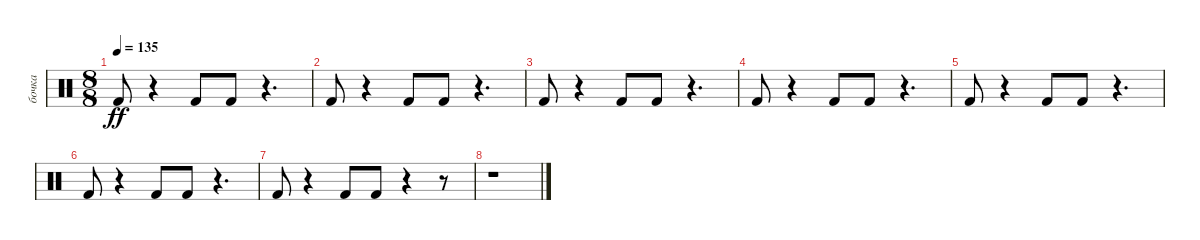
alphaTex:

\track ("бочка" "бочка") {instrument percussion}
\staff {score}
\articulation defaults
\ts (8 8)
\tempo 135
\clef neutral
\ks c "Kick (hit) 2".8{dy ff volume 14}
r.4 "Kick (hit) 2".8{volume 13} "Kick (hit) 2".8 r.4{d} |
"Kick (hit) 2".8{volume 12} r.4 "Kick (hit) 2".8{volume 12} "Kick (hit) 2".8{volume 12} r.4{d} |
"Kick (hit) 2".8{volume 11} r.4 "Kick (hit) 2".8{volume 10} "Kick (hit) 2".8 r.4{d} |
"Kick (hit) 2".8{volume 10} r.4 "Kick (hit) 2".8{volume 9} "Kick (hit) 2".8 r.4{d} |
"Kick (hit) 2".8{volume 9} r.4 "Kick (hit) 2".8{volume 8} "Kick (hit) 2".8{volume 8} r.4{d} |
"Kick (hit) 2".8{volume 7} r.4 "Kick (hit) 2".8{volume 6} "Kick (hit) 2".8 r.4{d} |
"Kick (hit) 2".8{volume 5} r.4 "Kick (hit) 2".8{volume 5} "Kick (hit) 2".8{volume 4} r.4 r.8 |
r.1
